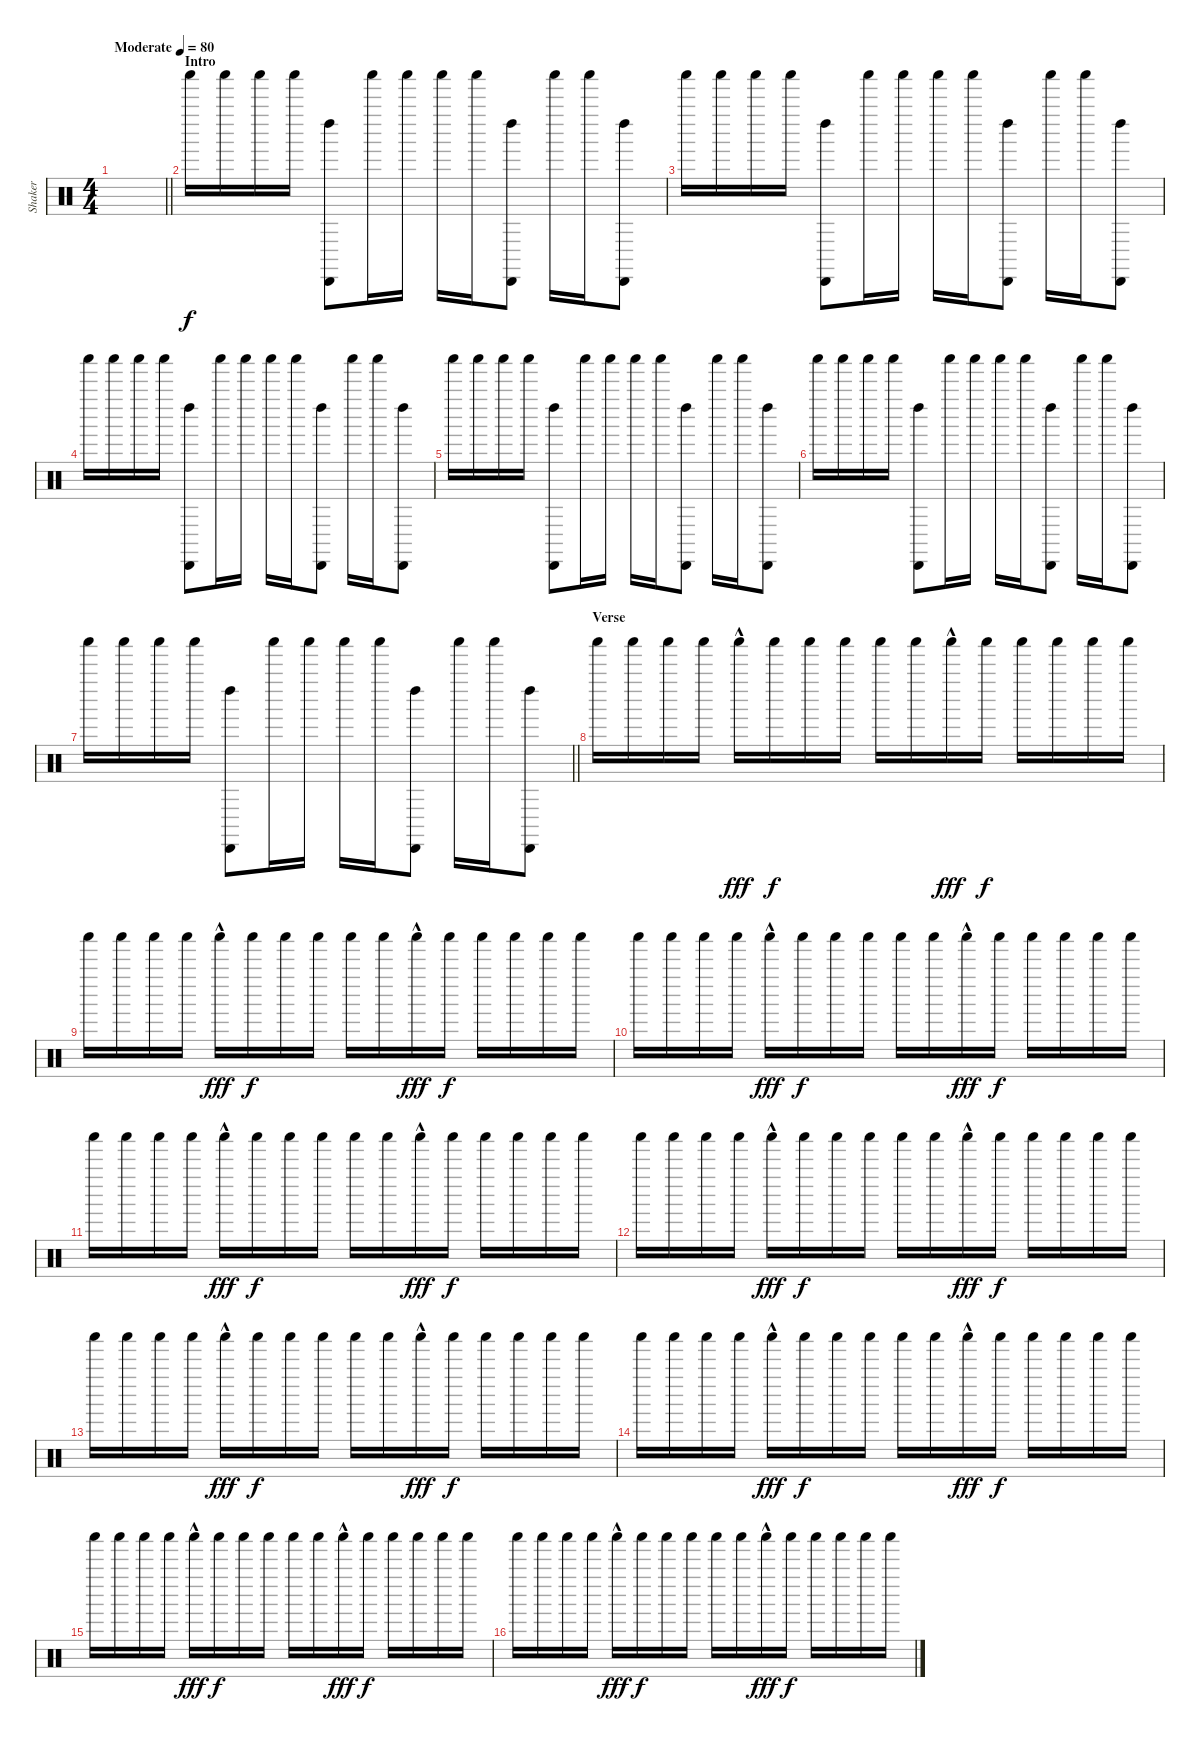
\track ("Shaker" "Shaker") {instrument percussion}
\staff {score}
\articulation defaults
\ts (4 4)
\tempo (80 "Moderate")
\clef neutral
\barLineRight lightlight
\ks c
|
\section ("" "Intro")
"Shaker (hit)".16 "Shaker (hit)".16 "Shaker (hit)".16 "Shaker (hit)".16 ("Left Maraca (hit)" "Cabasa (hit)").8 "Shaker (hit)".16 "Shaker (hit)".16 "Shaker (hit)".16 "Shaker (hit)".16 ("Left Maraca (hit)" "Cabasa (hit)").8 "Shaker (hit)".16 "Shaker (hit)".16 ("Left Maraca (hit)" "Cabasa (hit)").8 |
"Shaker (hit)".16 "Shaker (hit)".16 "Shaker (hit)".16 "Shaker (hit)".16 ("Left Maraca (hit)" "Cabasa (hit)").8 "Shaker (hit)".16 "Shaker (hit)".16 "Shaker (hit)".16 "Shaker (hit)".16 ("Left Maraca (hit)" "Cabasa (hit)").8 "Shaker (hit)".16 "Shaker (hit)".16 ("Left Maraca (hit)" "Cabasa (hit)").8 |
"Shaker (hit)".16 "Shaker (hit)".16 "Shaker (hit)".16 "Shaker (hit)".16 ("Left Maraca (hit)" "Cabasa (hit)").8 "Shaker (hit)".16 "Shaker (hit)".16 "Shaker (hit)".16 "Shaker (hit)".16 ("Left Maraca (hit)" "Cabasa (hit)").8 "Shaker (hit)".16 "Shaker (hit)".16 ("Left Maraca (hit)" "Cabasa (hit)").8 |
"Shaker (hit)".16 "Shaker (hit)".16 "Shaker (hit)".16 "Shaker (hit)".16 ("Left Maraca (hit)" "Cabasa (hit)").8 "Shaker (hit)".16 "Shaker (hit)".16 "Shaker (hit)".16 "Shaker (hit)".16 ("Left Maraca (hit)" "Cabasa (hit)").8 "Shaker (hit)".16 "Shaker (hit)".16 ("Left Maraca (hit)" "Cabasa (hit)").8 |
"Shaker (hit)".16 "Shaker (hit)".16 "Shaker (hit)".16 "Shaker (hit)".16 ("Left Maraca (hit)" "Cabasa (hit)").8 "Shaker (hit)".16 "Shaker (hit)".16 "Shaker (hit)".16 "Shaker (hit)".16 ("Left Maraca (hit)" "Cabasa (hit)").8 "Shaker (hit)".16 "Shaker (hit)".16 ("Left Maraca (hit)" "Cabasa (hit)").8 |
\barLineRight lightlight "Shaker (hit)".16 "Shaker (hit)".16 "Shaker (hit)".16 "Shaker (hit)".16
("Left Maraca (hit)" "Cabasa (hit)").8 "Shaker (hit)".16 "Shaker (hit)".16 "Shaker (hit)".16 "Shaker (hit)".16 ("Left Maraca (hit)" "Cabasa (hit)").8 "Shaker (hit)".16 "Shaker (hit)".16 ("Left Maraca (hit)" "Cabasa (hit)").8 |
\section ("" "Verse")
"Shaker (hit)".16{dy f} "Shaker (hit)".16 "Shaker (hit)".16 "Shaker (hit)".16 "Shaker (hit)"{hac}.16{dy fff} "Shaker (hit)".16{dy f} "Shaker (hit)".16 "Shaker (hit)".16 "Shaker (hit)".16 "Shaker (hit)".16 "Shaker (hit)"{hac}.16{dy fff} "Shaker (hit)".16{dy f} "Shaker (hit)".16 "Shaker (hit)".16 "Shaker (hit)".16 "Shaker (hit)".16 |
"Shaker (hit)".16 "Shaker (hit)".16 "Shaker (hit)".16 "Shaker (hit)".16 "Shaker (hit)"{hac}.16{dy fff} "Shaker (hit)".16{dy f} "Shaker (hit)".16 "Shaker (hit)".16 "Shaker (hit)".16 "Shaker (hit)".16 "Shaker (hit)"{hac}.16{dy fff} "Shaker (hit)".16{dy f} "Shaker (hit)".16 "Shaker (hit)".16 "Shaker (hit)".16 "Shaker (hit)".16 |
"Shaker (hit)".16 "Shaker (hit)".16 "Shaker (hit)".16 "Shaker (hit)".16 "Shaker (hit)"{hac}.16{dy fff} "Shaker (hit)".16{dy f} "Shaker (hit)".16 "Shaker (hit)".16 "Shaker (hit)".16 "Shaker (hit)".16 "Shaker (hit)"{hac}.16{dy fff} "Shaker (hit)".16{dy f} "Shaker (hit)".16 "Shaker (hit)".16 "Shaker (hit)".16 "Shaker (hit)".16 |
"Shaker (hit)".16 "Shaker (hit)".16 "Shaker (hit)".16 "Shaker (hit)".16 "Shaker (hit)"{hac}.16{dy fff} "Shaker (hit)".16{dy f} "Shaker (hit)".16 "Shaker (hit)".16 "Shaker (hit)".16 "Shaker (hit)".16 "Shaker (hit)"{hac}.16{dy fff} "Shaker (hit)".16{dy f} "Shaker (hit)".16 "Shaker (hit)".16 "Shaker (hit)".16 "Shaker (hit)".16 |
"Shaker (hit)".16 "Shaker (hit)".16 "Shaker (hit)".16 "Shaker (hit)".16 "Shaker (hit)"{hac}.16{dy fff} "Shaker (hit)".16{dy f} "Shaker (hit)".16 "Shaker (hit)".16 "Shaker (hit)".16 "Shaker (hit)".16 "Shaker (hit)"{hac}.16{dy fff} "Shaker (hit)".16{dy f} "Shaker (hit)".16 "Shaker (hit)".16 "Shaker (hit)".16 "Shaker (hit)".16 |
"Shaker (hit)".16 "Shaker (hit)".16 "Shaker (hit)".16 "Shaker (hit)".16 "Shaker (hit)"{hac}.16{dy fff} "Shaker (hit)".16{dy f} "Shaker (hit)".16 "Shaker (hit)".16 "Shaker (hit)".16 "Shaker (hit)".16 "Shaker (hit)"{hac}.16{dy fff} "Shaker (hit)".16{dy f} "Shaker (hit)".16 "Shaker (hit)".16 "Shaker (hit)".16 "Shaker (hit)".16 |
"Shaker (hit)".16 "Shaker (hit)".16 "Shaker (hit)".16 "Shaker (hit)".16 "Shaker (hit)"{hac}.16{dy fff} "Shaker (hit)".16{dy f} "Shaker (hit)".16 "Shaker (hit)".16 "Shaker (hit)".16 "Shaker (hit)".16 "Shaker (hit)"{hac}.16{dy fff} "Shaker (hit)".16{dy f} "Shaker (hit)".16 "Shaker (hit)".16 "Shaker (hit)".16 "Shaker (hit)".16 |
"Shaker (hit)".16 "Shaker (hit)".16 "Shaker (hit)".16 "Shaker (hit)".16 "Shaker (hit)"{hac}.16{dy fff} "Shaker (hit)".16{dy f} "Shaker (hit)".16 "Shaker (hit)".16 "Shaker (hit)".16 "Shaker (hit)".16 "Shaker (hit)"{hac}.16{dy fff} "Shaker (hit)".16{dy f} "Shaker (hit)".16 "Shaker (hit)".16 "Shaker (hit)".16 "Shaker (hit)".16 |
"Shaker (hit)".16 "Shaker (hit)".16 "Shaker (hit)".16 "Shaker (hit)".16 "Shaker (hit)"{hac}.16{dy fff} "Shaker (hit)".16{dy f} "Shaker (hit)".16 "Shaker (hit)".16 "Shaker (hit)".16 "Shaker (hit)".16 "Shaker (hit)"{hac}.16{dy fff} "Shaker (hit)".16{dy f} "Shaker (hit)".16 "Shaker (hit)".16 "Shaker (hit)".16 "Shaker (hit)".16
